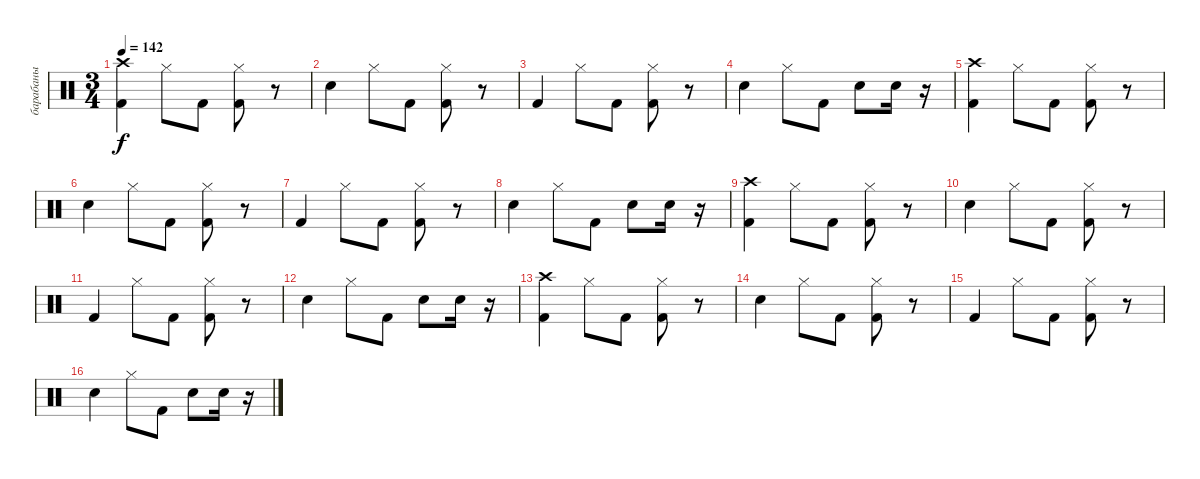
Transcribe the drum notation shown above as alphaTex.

\track ("барабаны" "барабаны") {instrument percussion}
\staff {score}
\articulation defaults
\ts (3 4)
\tempo 142
\clef neutral
\ks c
("Crash high (hit)" "Kick (hit) 2").4{dy f} "Hi-Hat (closed)".8 "Kick (hit) 2".8 ("Hi-Hat (closed)" "Kick (hit) 2").8 r.8 |
"Snare (hit) 2".4 "Hi-Hat (closed)".8 "Kick (hit) 2".8 ("Hi-Hat (closed)" "Kick (hit) 2").8 r.8 |
"Kick (hit) 2".4 "Hi-Hat (closed)".8 "Kick (hit) 2".8 ("Hi-Hat (closed)" "Kick (hit) 2").8 r.8 |
"Snare (hit) 2".4 "Hi-Hat (closed)".8 "Kick (hit) 2".8 "Snare (hit) 2".8 "Snare (hit) 2".16 r.16 |
("Crash high (hit)" "Kick (hit) 2").4 "Hi-Hat (closed)".8 "Kick (hit) 2".8 ("Hi-Hat (closed)" "Kick (hit) 2").8 r.8 |
"Snare (hit) 2".4 "Hi-Hat (closed)".8 "Kick (hit) 2".8 ("Hi-Hat (closed)" "Kick (hit) 2").8 r.8 |
"Kick (hit) 2".4 "Hi-Hat (closed)".8 "Kick (hit) 2".8 ("Hi-Hat (closed)" "Kick (hit) 2").8 r.8 |
"Snare (hit) 2".4 "Hi-Hat (closed)".8 "Kick (hit) 2".8 "Snare (hit) 2".8 "Snare (hit) 2".16 r.16 |
("Crash high (hit)" "Kick (hit) 2").4 "Hi-Hat (closed)".8 "Kick (hit) 2".8 ("Hi-Hat (closed)" "Kick (hit) 2").8 r.8 |
"Snare (hit) 2".4 "Hi-Hat (closed)".8 "Kick (hit) 2".8 ("Hi-Hat (closed)" "Kick (hit) 2").8 r.8 |
"Kick (hit) 2".4 "Hi-Hat (closed)".8 "Kick (hit) 2".8 ("Hi-Hat (closed)" "Kick (hit) 2").8 r.8 |
"Snare (hit) 2".4 "Hi-Hat (closed)".8 "Kick (hit) 2".8 "Snare (hit) 2".8 "Snare (hit) 2".16 r.16 |
("Crash high (hit)" "Kick (hit) 2").4 "Hi-Hat (closed)".8 "Kick (hit) 2".8 ("Hi-Hat (closed)" "Kick (hit) 2").8 r.8 |
"Snare (hit) 2".4 "Hi-Hat (closed)".8 "Kick (hit) 2".8 ("Hi-Hat (closed)" "Kick (hit) 2").8 r.8 |
"Kick (hit) 2".4 "Hi-Hat (closed)".8 "Kick (hit) 2".8 ("Hi-Hat (closed)" "Kick (hit) 2").8 r.8 |
"Snare (hit) 2".4 "Hi-Hat (closed)".8 "Kick (hit) 2".8 "Snare (hit) 2".8 "Snare (hit) 2".16 r.16
